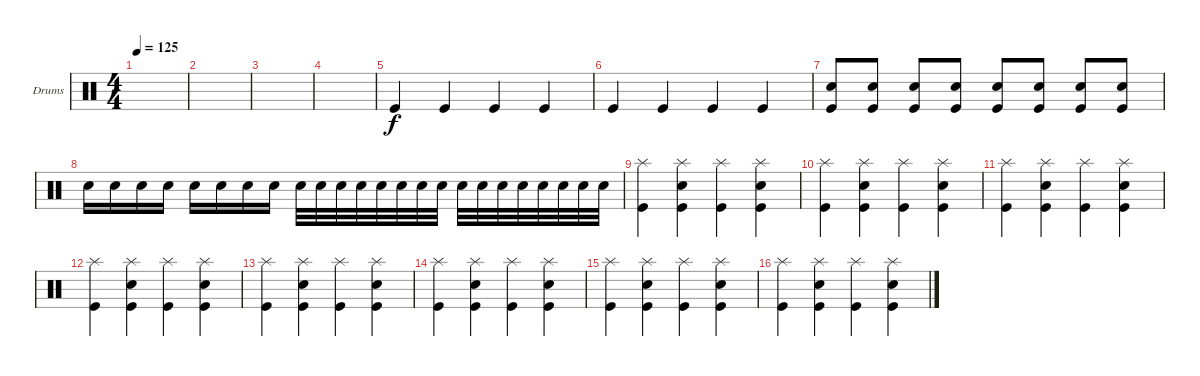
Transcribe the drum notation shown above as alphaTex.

\bracketExtendMode groupsimilarinstruments
\firstSystemTrackNameOrientation horizontal
\otherSystemsTrackNameOrientation horizontal
\track ("Drumkit" "Drums") {instrument percussion}
\staff {score}
\articulation defaults
\ts (4 4)
\tempo 125
\clef neutral
\ks c
|
|
|
|
"Kick (hit)".4 "Kick (hit)".4 "Kick (hit)".4 "Kick (hit)".4 |
"Kick (hit)".4 "Kick (hit)".4 "Kick (hit)".4 "Kick (hit)".4 |
("Kick (hit)" "Snare (hit) 2").8 ("Kick (hit)" "Snare (hit) 2").8 ("Kick (hit)" "Snare (hit) 2").8 ("Kick (hit)" "Snare (hit) 2").8 ("Kick (hit)" "Snare (hit) 2").8 ("Kick (hit)" "Snare (hit) 2").8 ("Kick (hit)" "Snare (hit) 2").8 ("Kick (hit)" "Snare (hit) 2").8 |
"Snare (hit) 2".16 "Snare (hit) 2".16 "Snare (hit) 2".16 "Snare (hit) 2".16 "Snare (hit) 2".16 "Snare (hit) 2".16 "Snare (hit) 2".16 "Snare (hit) 2".16 "Snare (hit) 2".32 "Snare (hit) 2".32 "Snare (hit) 2".32 "Snare (hit) 2".32 "Snare (hit) 2".32 "Snare (hit) 2".32 "Snare (hit) 2".32 "Snare (hit) 2".32 "Snare (hit) 2".32 "Snare (hit) 2".32 "Snare (hit) 2".32 "Snare (hit) 2".32 "Snare (hit) 2".32 "Snare (hit) 2".32 "Snare (hit) 2".32 "Snare (hit) 2".32 |
("Splash (hit)" "Kick (hit)").4 ("Splash (hit)" "Kick (hit)" "Snare (hit) 2").4 ("Splash (hit)" "Kick (hit)").4 ("Splash (hit)" "Kick (hit)" "Snare (hit) 2").4 |
("Splash (hit)" "Kick (hit)").4 ("Splash (hit)" "Kick (hit)" "Snare (hit) 2").4 ("Splash (hit)" "Kick (hit)").4 ("Splash (hit)" "Kick (hit)" "Snare (hit) 2").4 |
("Splash (hit)" "Kick (hit)").4 ("Splash (hit)" "Kick (hit)" "Snare (hit) 2").4 ("Splash (hit)" "Kick (hit)").4 ("Splash (hit)" "Kick (hit)" "Snare (hit) 2").4 |
("Splash (hit)" "Kick (hit)").4 ("Splash (hit)" "Kick (hit)" "Snare (hit) 2").4 ("Splash (hit)" "Kick (hit)").4 ("Splash (hit)" "Kick (hit)" "Snare (hit) 2").4 |
("Splash (hit)" "Kick (hit)").4 ("Splash (hit)" "Kick (hit)" "Snare (hit) 2").4 ("Splash (hit)" "Kick (hit)").4 ("Splash (hit)" "Kick (hit)" "Snare (hit) 2").4 |
("Splash (hit)" "Kick (hit)").4 ("Splash (hit)" "Kick (hit)" "Snare (hit) 2").4 ("Splash (hit)" "Kick (hit)").4 ("Splash (hit)" "Kick (hit)" "Snare (hit) 2").4 |
("Splash (hit)" "Kick (hit)").4 ("Splash (hit)" "Kick (hit)" "Snare (hit) 2").4 ("Splash (hit)" "Kick (hit)").4 ("Splash (hit)" "Kick (hit)" "Snare (hit) 2").4 |
("Splash (hit)" "Kick (hit)").4 ("Splash (hit)" "Kick (hit)" "Snare (hit) 2").4 ("Splash (hit)" "Kick (hit)").4 ("Splash (hit)" "Kick (hit)" "Snare (hit) 2").4
